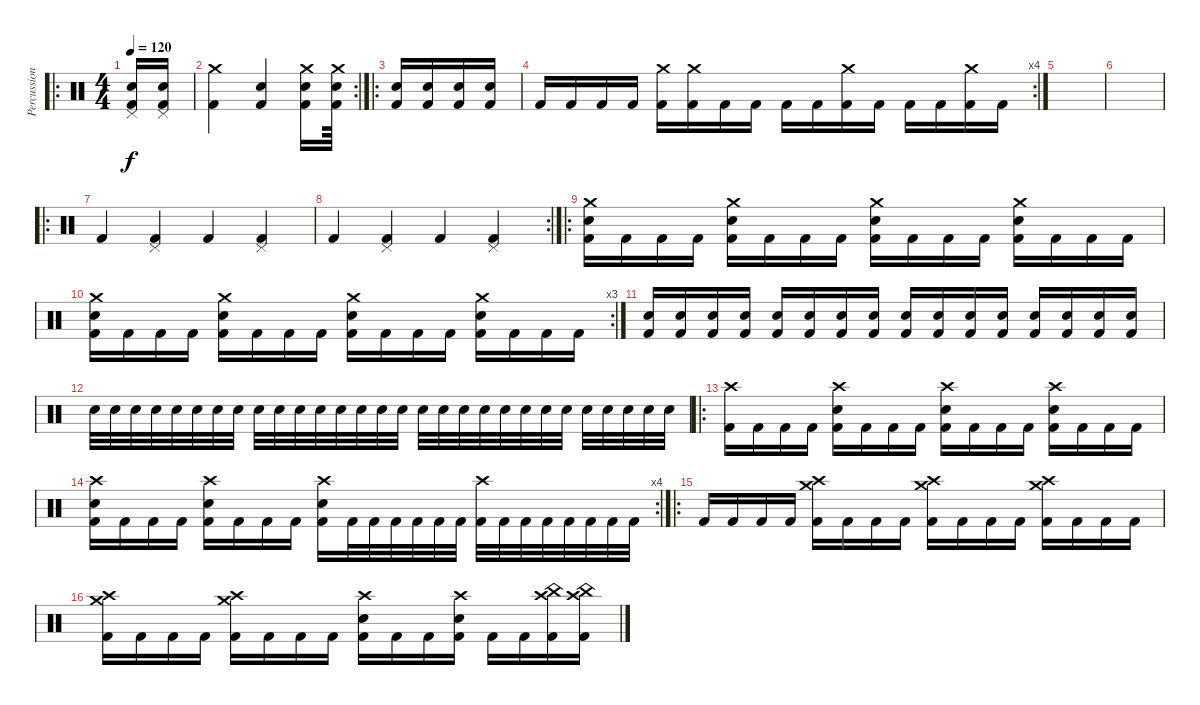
\track ("Percussion" "Percussion") {instrument percussion}
\staff {score}
\articulation defaults
\ro
\ts (4 4)
\tempo 120
\clef neutral
\ks c
("Pedal Hi-Hat (hit)" "Electric Snare (hit)" "Kick (hit) 2").16{dy f} ("Pedal Hi-Hat (hit)" "Electric Snare (hit)" "Kick (hit) 2").16 |
\rc 2
("Crash medium (hit)" "Kick (hit) 2").4 ("Electric Snare (hit)" "Kick (hit) 2").4 ("Crash medium (hit)" "Electric Snare (hit)" "Kick (hit) 2").16 ("Crash medium (hit)" "Electric Snare (hit)" "Kick (hit) 2").64 |
\ro
("Electric Snare (hit)" "Kick (hit) 2").16 ("Electric Snare (hit)" "Kick (hit) 2").16 ("Electric Snare (hit)" "Kick (hit) 2").16 ("Electric Snare (hit)" "Kick (hit) 2").16 |
\rc 4 "Kick (hit) 2".16 "Kick (hit) 2".16 "Kick (hit) 2".16 "Kick (hit) 2".16
("Crash medium (hit)" "Kick (hit) 2").16 ("Crash medium (hit)" "Kick (hit) 2").16 "Kick (hit) 2".16 "Kick (hit) 2".16 "Kick (hit) 2".16 "Kick (hit) 2".16 ("Crash medium (hit)" "Kick (hit) 2").16 "Kick (hit) 2".16 "Kick (hit) 2".16 "Kick (hit) 2".16 ("Crash medium (hit)" "Kick (hit) 2").16 "Kick (hit) 2".16 |
|
|
\ro "Kick (hit) 2".4
("Pedal Hi-Hat (hit)" "Kick (hit) 2").4 "Kick (hit) 2".4 ("Pedal Hi-Hat (hit)" "Kick (hit) 2").4 |
\rc 2 "Kick (hit) 2".4
("Pedal Hi-Hat (hit)" "Kick (hit) 2").4 "Kick (hit) 2".4 ("Pedal Hi-Hat (hit)" "Kick (hit) 2").4 |
\ro
("Electric Snare (hit)" "Crash medium (hit)" "Kick (hit) 2").16 "Kick (hit) 2".16 "Kick (hit) 2".16 "Kick (hit) 2".16 ("Electric Snare (hit)" "Crash medium (hit)" "Kick (hit) 2").16 "Kick (hit) 2".16 "Kick (hit) 2".16 "Kick (hit) 2".16 ("Electric Snare (hit)" "Crash medium (hit)" "Kick (hit) 2").16 "Kick (hit) 2".16 "Kick (hit) 2".16 "Kick (hit) 2".16 ("Electric Snare (hit)" "Crash medium (hit)" "Kick (hit) 2").16 "Kick (hit) 2".16 "Kick (hit) 2".16 "Kick (hit) 2".16 |
\rc 3
("Electric Snare (hit)" "Crash medium (hit)" "Kick (hit) 2").16 "Kick (hit) 2".16 "Kick (hit) 2".16 "Kick (hit) 2".16 ("Electric Snare (hit)" "Crash medium (hit)" "Kick (hit) 2").16 "Kick (hit) 2".16 "Kick (hit) 2".16 "Kick (hit) 2".16 ("Electric Snare (hit)" "Crash medium (hit)" "Kick (hit) 2").16 "Kick (hit) 2".16 "Kick (hit) 2".16 "Kick (hit) 2".16 ("Electric Snare (hit)" "Crash medium (hit)" "Kick (hit) 2").16 "Kick (hit) 2".16 "Kick (hit) 2".16 "Kick (hit) 2".16 |
("Electric Snare (hit)" "Kick (hit) 2").16 ("Electric Snare (hit)" "Kick (hit) 2").16 ("Electric Snare (hit)" "Kick (hit) 2").16 ("Electric Snare (hit)" "Kick (hit) 2").16 ("Electric Snare (hit)" "Kick (hit) 2").16 ("Electric Snare (hit)" "Kick (hit) 2").16 ("Electric Snare (hit)" "Kick (hit) 2").16 ("Electric Snare (hit)" "Kick (hit) 2").16 ("Electric Snare (hit)" "Kick (hit) 2").16 ("Electric Snare (hit)" "Kick (hit) 2").16 ("Electric Snare (hit)" "Kick (hit) 2").16 ("Electric Snare (hit)" "Kick (hit) 2").16 ("Electric Snare (hit)" "Kick (hit) 2").16 ("Electric Snare (hit)" "Kick (hit) 2").16 ("Electric Snare (hit)" "Kick (hit) 2").16 ("Electric Snare (hit)" "Kick (hit) 2").16 |
"Electric Snare (hit)".32 "Electric Snare (hit)".32 "Electric Snare (hit)".32 "Electric Snare (hit)".32 "Electric Snare (hit)".32 "Electric Snare (hit)".32 "Electric Snare (hit)".32 "Electric Snare (hit)".32 "Electric Snare (hit)".32 "Electric Snare (hit)".32 "Electric Snare (hit)".32 "Electric Snare (hit)".32 "Electric Snare (hit)".32 "Electric Snare (hit)".32 "Electric Snare (hit)".32 "Electric Snare (hit)".32 "Electric Snare (hit)".32 "Electric Snare (hit)".32 "Electric Snare (hit)".32 "Electric Snare (hit)".32 "Electric Snare (hit)".32 "Electric Snare (hit)".32 "Electric Snare (hit)".32 "Electric Snare (hit)".32 "Electric Snare (hit)".32 "Electric Snare (hit)".32 "Electric Snare (hit)".32 "Electric Snare (hit)".32 "Electric Snare (hit)".32 |
\ro
("Crash high (hit)" "Kick (hit) 2").16 "Kick (hit) 2".16 "Kick (hit) 2".16 "Kick (hit) 2".16 ("Electric Snare (hit)" "Crash high (hit)" "Kick (hit) 2").16 "Kick (hit) 2".16 "Kick (hit) 2".16 "Kick (hit) 2".16 ("Electric Snare (hit)" "Crash high (hit)" "Kick (hit) 2").16 "Kick (hit) 2".16 "Kick (hit) 2".16 "Kick (hit) 2".16 ("Electric Snare (hit)" "Crash high (hit)" "Kick (hit) 2").16 "Kick (hit) 2".16 "Kick (hit) 2".16 "Kick (hit) 2".16 |
\rc 4
("Electric Snare (hit)" "Crash high (hit)" "Kick (hit) 2").16 "Kick (hit) 2".16 "Kick (hit) 2".16 "Kick (hit) 2".16 ("Electric Snare (hit)" "Crash high (hit)" "Kick (hit) 2").16 "Kick (hit) 2".16 "Kick (hit) 2".16 "Kick (hit) 2".16 ("Electric Snare (hit)" "Crash high (hit)" "Kick (hit) 2").16 "Kick (hit) 2".32 "Kick (hit) 2".32 "Kick (hit) 2".32 "Kick (hit) 2".32 "Kick (hit) 2".32 "Kick (hit) 2".32 ("Crash high (hit)" "Kick (hit) 2").32 "Kick (hit) 2".32 "Kick (hit) 2".32 "Kick (hit) 2".32 "Kick (hit) 2".32 "Kick (hit) 2".32 "Kick (hit) 2".32 "Kick (hit) 2".32 |
\ro "Kick (hit) 2".16 "Kick (hit) 2".16 "Kick (hit) 2".16 "Kick (hit) 2".16
("Crash medium (hit)" "Crash high (hit)" "Kick (hit) 2").16 "Kick (hit) 2".16 "Kick (hit) 2".16 "Kick (hit) 2".16 ("Crash high (hit)" "Crash medium (hit)" "Kick (hit) 2").16 "Kick (hit) 2".16 "Kick (hit) 2".16 "Kick (hit) 2".16 ("Crash medium (hit)" "Crash high (hit)" "Kick (hit) 2").16 "Kick (hit) 2".16 "Kick (hit) 2".16 "Kick (hit) 2".16 |
("Crash high (hit)" "Crash medium (hit)" "Kick (hit) 2").16 "Kick (hit) 2".16 "Kick (hit) 2".16 "Kick (hit) 2".16 ("Crash medium (hit)" "Crash high (hit)" "Kick (hit) 2").16 "Kick (hit) 2".16 "Kick (hit) 2".16 "Kick (hit) 2".16 ("Electric Snare (hit)" "Crash high (hit)" "Kick (hit) 2").16 "Kick (hit) 2".16 "Kick (hit) 2".16 ("Crash high (hit)" "Electric Snare (hit)" "Kick (hit) 2").16 "Kick (hit) 2".16 "Kick (hit) 2".16 ("Crash high (hit)" "China (hit)" "Kick (hit) 2").16 ("Crash high (hit)" "China (hit)" "Kick (hit) 2").16
